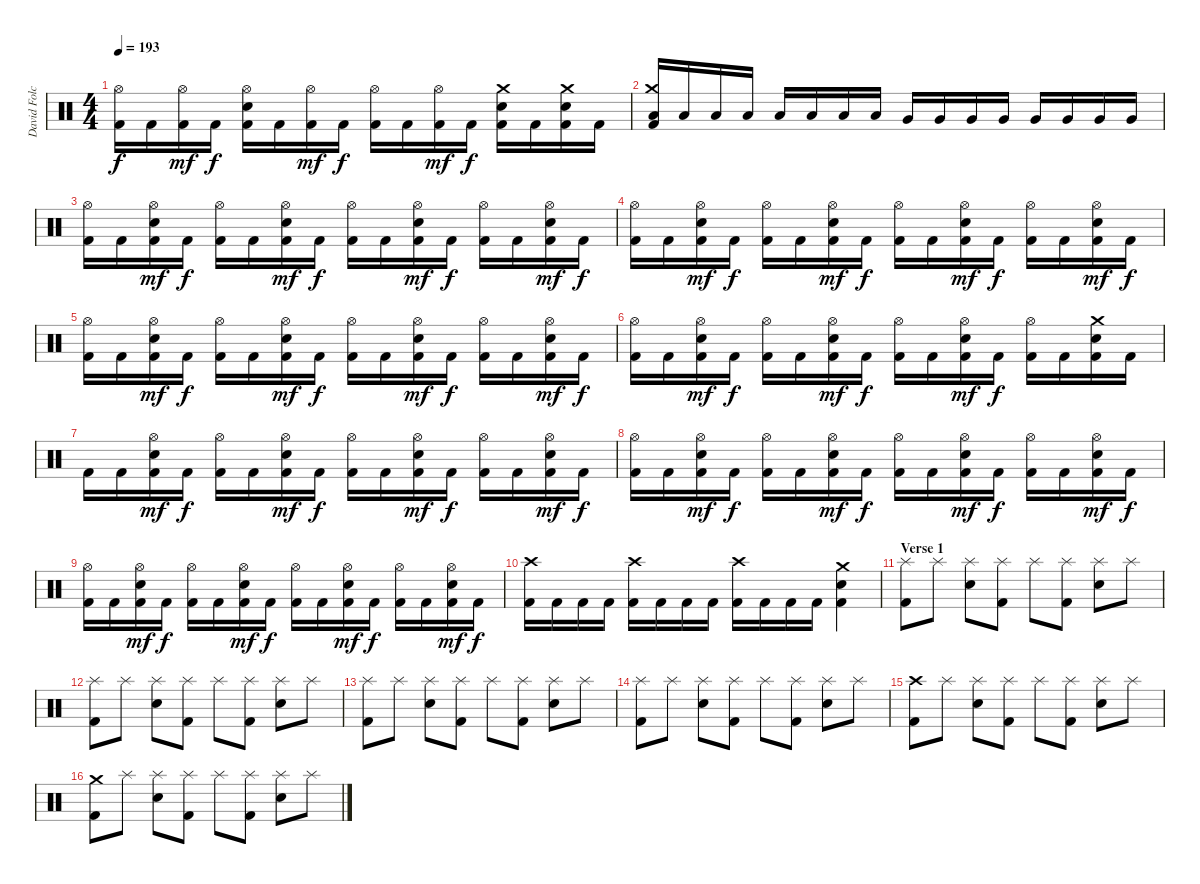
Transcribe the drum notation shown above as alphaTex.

\track ("David Folchitto" "David Folc") {instrument percussion}
\staff {score}
\articulation defaults
\ts (4 4)
\tempo 193
\clef neutral
\ks c
("Hi-Hat (open)" "Kick (hit) 2").16{dy f} "Kick (hit) 2".16 ("Hi-Hat (open)" "Kick (hit) 2").16{dy mf} "Kick (hit) 2".16{dy f} ("Hi-Hat (open)" "Snare (hit) 2" "Kick (hit) 2").16 "Kick (hit) 2".16 ("Hi-Hat (open)" "Kick (hit) 2").16{dy mf} "Kick (hit) 2".16{dy f} ("Hi-Hat (open)" "Kick (hit) 2").16 "Kick (hit) 2".16 ("Hi-Hat (open)" "Kick (hit) 2").16{dy mf} "Kick (hit) 2".16{dy f} ("Crash medium (hit)" "Snare (hit) 2" "Kick (hit) 2").16 "Kick (hit) 2".16 ("Crash medium (hit)" "Snare (hit) 2" "Kick (hit) 2").16 "Kick (hit) 2".16 |
("Crash medium (hit)" "Low Tom (hit)" "Kick (hit) 2").16 "Low Tom (hit)".16 "Low Tom (hit)".16 "Low Tom (hit)".16 "Low Tom (hit)".16 "Low Tom (hit)".16 "Low Tom (hit)".16 "Low Tom (hit)".16 "Very Low Tom (hit)".16 "Very Low Tom (hit)".16 "Very Low Tom (hit)".16 "Very Low Tom (hit)".16 "Very Low Tom (hit)".16 "Very Low Tom (hit)".16 "Very Low Tom (hit)".16 "Very Low Tom (hit)".16 |
("Hi-Hat (open)" "Kick (hit) 2").16 "Kick (hit) 2".16 ("Hi-Hat (open)" "Snare (hit) 2" "Kick (hit) 2").16{dy mf} "Kick (hit) 2".16{dy f} ("Hi-Hat (open)" "Kick (hit) 2").16 "Kick (hit) 2".16 ("Hi-Hat (open)" "Snare (hit) 2" "Kick (hit) 2").16{dy mf} "Kick (hit) 2".16{dy f} ("Hi-Hat (open)" "Kick (hit) 2").16 "Kick (hit) 2".16 ("Hi-Hat (open)" "Snare (hit) 2" "Kick (hit) 2").16{dy mf} "Kick (hit) 2".16{dy f} ("Hi-Hat (open)" "Kick (hit) 2").16 "Kick (hit) 2".16 ("Hi-Hat (open)" "Snare (hit) 2" "Kick (hit) 2").16{dy mf} "Kick (hit) 2".16{dy f} |
("Hi-Hat (open)" "Kick (hit) 2").16 "Kick (hit) 2".16 ("Hi-Hat (open)" "Snare (hit) 2" "Kick (hit) 2").16{dy mf} "Kick (hit) 2".16{dy f} ("Hi-Hat (open)" "Kick (hit) 2").16 "Kick (hit) 2".16 ("Hi-Hat (open)" "Snare (hit) 2" "Kick (hit) 2").16{dy mf} "Kick (hit) 2".16{dy f} ("Hi-Hat (open)" "Kick (hit) 2").16 "Kick (hit) 2".16 ("Hi-Hat (open)" "Snare (hit) 2" "Kick (hit) 2").16{dy mf} "Kick (hit) 2".16{dy f} ("Hi-Hat (open)" "Kick (hit) 2").16 "Kick (hit) 2".16 ("Hi-Hat (open)" "Snare (hit) 2" "Kick (hit) 2").16{dy mf} "Kick (hit) 2".16{dy f} |
("Hi-Hat (open)" "Kick (hit) 2").16 "Kick (hit) 2".16 ("Hi-Hat (open)" "Snare (hit) 2" "Kick (hit) 2").16{dy mf} "Kick (hit) 2".16{dy f} ("Hi-Hat (open)" "Kick (hit) 2").16 "Kick (hit) 2".16 ("Hi-Hat (open)" "Snare (hit) 2" "Kick (hit) 2").16{dy mf} "Kick (hit) 2".16{dy f} ("Hi-Hat (open)" "Kick (hit) 2").16 "Kick (hit) 2".16 ("Hi-Hat (open)" "Snare (hit) 2" "Kick (hit) 2").16{dy mf} "Kick (hit) 2".16{dy f} ("Hi-Hat (open)" "Kick (hit) 2").16 "Kick (hit) 2".16 ("Hi-Hat (open)" "Snare (hit) 2" "Kick (hit) 2").16{dy mf} "Kick (hit) 2".16{dy f} |
("Hi-Hat (open)" "Kick (hit) 2").16 "Kick (hit) 2".16 ("Hi-Hat (open)" "Snare (hit) 2" "Kick (hit) 2").16{dy mf} "Kick (hit) 2".16{dy f} ("Hi-Hat (open)" "Kick (hit) 2").16 "Kick (hit) 2".16 ("Hi-Hat (open)" "Snare (hit) 2" "Kick (hit) 2").16{dy mf} "Kick (hit) 2".16{dy f} ("Hi-Hat (open)" "Kick (hit) 2").16 "Kick (hit) 2".16 ("Hi-Hat (open)" "Snare (hit) 2" "Kick (hit) 2").16{dy mf} "Kick (hit) 2".16{dy f} ("Hi-Hat (open)" "Kick (hit) 2").16 "Kick (hit) 2".16 ("Crash medium (hit)" "Snare (hit) 2" "Kick (hit) 2").16 "Kick (hit) 2".16 |
"Kick (hit) 2".16 "Kick (hit) 2".16 ("Hi-Hat (open)" "Snare (hit) 2" "Kick (hit) 2").16{dy mf} "Kick (hit) 2".16{dy f} ("Hi-Hat (open)" "Kick (hit) 2").16 "Kick (hit) 2".16 ("Hi-Hat (open)" "Snare (hit) 2" "Kick (hit) 2").16{dy mf} "Kick (hit) 2".16{dy f} ("Hi-Hat (open)" "Kick (hit) 2").16 "Kick (hit) 2".16 ("Hi-Hat (open)" "Snare (hit) 2" "Kick (hit) 2").16{dy mf} "Kick (hit) 2".16{dy f} ("Hi-Hat (open)" "Kick (hit) 2").16 "Kick (hit) 2".16 ("Hi-Hat (open)" "Snare (hit) 2" "Kick (hit) 2").16{dy mf} "Kick (hit) 2".16{dy f} |
("Hi-Hat (open)" "Kick (hit) 2").16 "Kick (hit) 2".16 ("Hi-Hat (open)" "Snare (hit) 2" "Kick (hit) 2").16{dy mf} "Kick (hit) 2".16{dy f} ("Hi-Hat (open)" "Kick (hit) 2").16 "Kick (hit) 2".16 ("Hi-Hat (open)" "Snare (hit) 2" "Kick (hit) 2").16{dy mf} "Kick (hit) 2".16{dy f} ("Hi-Hat (open)" "Kick (hit) 2").16 "Kick (hit) 2".16 ("Hi-Hat (open)" "Snare (hit) 2" "Kick (hit) 2").16{dy mf} "Kick (hit) 2".16{dy f} ("Hi-Hat (open)" "Kick (hit) 2").16 "Kick (hit) 2".16 ("Hi-Hat (open)" "Snare (hit) 2" "Kick (hit) 2").16{dy mf} "Kick (hit) 2".16{dy f} |
("Hi-Hat (open)" "Kick (hit) 2").16 "Kick (hit) 2".16 ("Hi-Hat (open)" "Snare (hit) 2" "Kick (hit) 2").16{dy mf} "Kick (hit) 2".16{dy f} ("Hi-Hat (open)" "Kick (hit) 2").16 "Kick (hit) 2".16 ("Hi-Hat (open)" "Snare (hit) 2" "Kick (hit) 2").16{dy mf} "Kick (hit) 2".16{dy f} ("Hi-Hat (open)" "Kick (hit) 2").16 "Kick (hit) 2".16 ("Hi-Hat (open)" "Snare (hit) 2" "Kick (hit) 2").16{dy mf} "Kick (hit) 2".16{dy f} ("Hi-Hat (open)" "Kick (hit) 2").16 "Kick (hit) 2".16 ("Hi-Hat (open)" "Snare (hit) 2" "Kick (hit) 2").16{dy mf} "Kick (hit) 2".16{dy f} |
("Crash high (hit)" "Kick (hit) 2").16 "Kick (hit) 2".16 "Kick (hit) 2".16 "Kick (hit) 2".16 ("Crash high (hit)" "Kick (hit) 2").16 "Kick (hit) 2".16 "Kick (hit) 2".16 "Kick (hit) 2".16 ("Crash high (hit)" "Kick (hit) 2").16 "Kick (hit) 2".16 "Kick (hit) 2".16 "Kick (hit) 2".16 ("Crash medium (hit)" "Snare (hit) 2" "Kick (hit) 2").4 |
\section ("" "Verse 1")
("Splash (hit)" "Kick (hit) 2").8 "Splash (hit)".8 ("Snare (hit) 2" "Splash (hit)").8 ("Splash (hit)" "Kick (hit) 2").8 "Splash (hit)".8 ("Splash (hit)" "Kick (hit) 2").8 ("Snare (hit) 2" "Splash (hit)").8 "Splash (hit)".8 |
("Splash (hit)" "Kick (hit) 2").8 "Splash (hit)".8 ("Snare (hit) 2" "Splash (hit)").8 ("Splash (hit)" "Kick (hit) 2").8 "Splash (hit)".8 ("Splash (hit)" "Kick (hit) 2").8 ("Snare (hit) 2" "Splash (hit)").8 "Splash (hit)".8 |
("Splash (hit)" "Kick (hit) 2").8 "Splash (hit)".8 ("Snare (hit) 2" "Splash (hit)").8 ("Splash (hit)" "Kick (hit) 2").8 "Splash (hit)".8 ("Splash (hit)" "Kick (hit) 2").8 ("Snare (hit) 2" "Splash (hit)").8 "Splash (hit)".8 |
("Splash (hit)" "Kick (hit) 2").8 "Splash (hit)".8 ("Snare (hit) 2" "Splash (hit)").8 ("Splash (hit)" "Kick (hit) 2").8 "Splash (hit)".8 ("Splash (hit)" "Kick (hit) 2").8 ("Snare (hit) 2" "Splash (hit)").8 "Splash (hit)".8 |
("Crash high (hit)" "Kick (hit) 2").8 "Splash (hit)".8 ("Snare (hit) 2" "Splash (hit)").8 ("Splash (hit)" "Kick (hit) 2").8 "Splash (hit)".8 ("Splash (hit)" "Kick (hit) 2").8 ("Snare (hit) 2" "Splash (hit)").8 "Splash (hit)".8 |
("Crash medium (hit)" "Kick (hit) 2").8 "Splash (hit)".8 ("Snare (hit) 2" "Splash (hit)").8 ("Splash (hit)" "Kick (hit) 2").8 "Splash (hit)".8 ("Splash (hit)" "Kick (hit) 2").8 ("Snare (hit) 2" "Splash (hit)").8 "Splash (hit)".8
